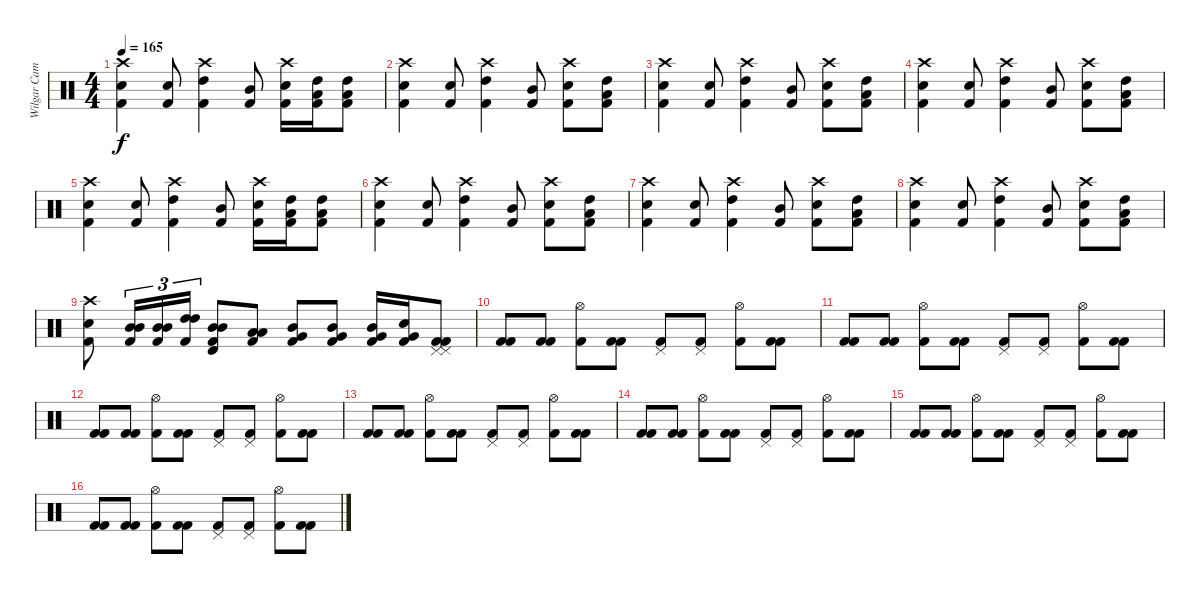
\track ("Wilgar Campbell" "Wilgar Cam") {instrument percussion}
\staff {score}
\articulation defaults
\ts (4 4)
\tempo 165
\clef neutral
\ks c
("Crash high (hit)" "Electric Snare (hit)" "Kick (hit) 2").4{dy f} ("Snare (hit) 2" "Kick (hit) 2").8 ("Crash high (hit)" "High Tom (hit)" "Kick (hit) 2").4 ("Mid Tom (hit)" "Kick (hit) 2").8 ("Crash high (hit)" "Electric Snare (hit)" "Kick (hit) 2").16 ("High Tom (hit)" "Kick (hit) 2" "Low Tom (hit)").16 ("High Tom (hit)" "Kick (hit) 2" "Low Tom (hit)").8 |
("Crash high (hit)" "Electric Snare (hit)" "Kick (hit) 2").4 ("Snare (hit) 2" "Kick (hit) 2").8 ("Crash high (hit)" "High Tom (hit)" "Kick (hit) 2").4 ("Mid Tom (hit)" "Kick (hit) 2").8 ("Crash high (hit)" "Electric Snare (hit)" "Kick (hit) 2").8 ("High Tom (hit)" "Kick (hit) 2" "Low Tom (hit)").8 |
("Crash high (hit)" "Electric Snare (hit)" "Kick (hit) 2").4 ("Snare (hit) 2" "Kick (hit) 2").8 ("Crash high (hit)" "High Tom (hit)" "Kick (hit) 2").4 ("Mid Tom (hit)" "Kick (hit) 2").8 ("Crash high (hit)" "Electric Snare (hit)" "Kick (hit) 2").8 ("High Tom (hit)" "Kick (hit) 2" "Low Tom (hit)").8 |
("Crash high (hit)" "Electric Snare (hit)" "Kick (hit) 2").4 ("Snare (hit) 2" "Kick (hit) 2").8 ("Crash high (hit)" "High Tom (hit)" "Kick (hit) 2").4 ("Mid Tom (hit)" "Kick (hit) 2").8 ("Crash high (hit)" "Electric Snare (hit)" "Kick (hit) 2").8 ("High Tom (hit)" "Kick (hit) 2" "Low Tom (hit)").8 |
("Crash high (hit)" "Electric Snare (hit)" "Kick (hit) 2").4 ("Snare (hit) 2" "Kick (hit) 2").8 ("Crash high (hit)" "High Tom (hit)" "Kick (hit) 2").4 ("Mid Tom (hit)" "Kick (hit) 2").8 ("Crash high (hit)" "Electric Snare (hit)" "Kick (hit) 2").16 ("High Tom (hit)" "Kick (hit) 2" "Low Tom (hit)").16 ("High Tom (hit)" "Kick (hit) 2" "Low Tom (hit)").8 |
("Crash high (hit)" "Electric Snare (hit)" "Kick (hit) 2").4 ("Snare (hit) 2" "Kick (hit) 2").8 ("Crash high (hit)" "High Tom (hit)" "Kick (hit) 2").4 ("Mid Tom (hit)" "Kick (hit) 2").8 ("Crash high (hit)" "Electric Snare (hit)" "Kick (hit) 2").8 ("High Tom (hit)" "Kick (hit) 2" "Low Tom (hit)").8 |
("Crash high (hit)" "Electric Snare (hit)" "Kick (hit) 2").4 ("Snare (hit) 2" "Kick (hit) 2").8 ("Crash high (hit)" "High Tom (hit)" "Kick (hit) 2").4 ("Mid Tom (hit)" "Kick (hit) 2").8 ("Crash high (hit)" "Electric Snare (hit)" "Kick (hit) 2").8 ("High Tom (hit)" "Kick (hit) 2" "Low Tom (hit)").8 |
("Crash high (hit)" "Electric Snare (hit)" "Kick (hit) 2").4 ("Snare (hit) 2" "Kick (hit) 2").8 ("Crash high (hit)" "High Tom (hit)" "Kick (hit) 2").4 ("Mid Tom (hit)" "Kick (hit) 2").8 ("Crash high (hit)" "Electric Snare (hit)" "Kick (hit) 2").8 ("High Tom (hit)" "Kick (hit) 2" "Low Tom (hit)").8 |
("Crash high (hit)" "Snare (hit) 2" "Kick (hit) 2").8 ("Mid Tom (hit)" "Mid Tom (hit)" "Kick (hit) 2").16{tu (3 2)} ("Mid Tom (hit)" "Mid Tom (hit)" "Kick (hit) 2").16{tu (3 2)} ("High Tom (hit)" "High Tom (hit)" "Kick (hit) 2").16{tu (3 2)} ("Timbale high (hit)" "Mid Tom (hit)" "Mid Tom (hit)" "Kick (hit) 2").8 ("Low Tom (hit)" "Low Tom (hit)" "Kick (hit) 2").8 ("Mid Tom (hit)" "Very Low Tom (hit)" "Kick (hit) 2").8 ("Mid Tom (hit)" "Very Low Tom (hit)" "Kick (hit) 2").8 ("Mid Tom (hit)" "Very Low Tom (hit)" "Kick (hit) 2").16 ("Electric Snare (hit)" "Very Low Tom (hit)" "Kick (hit) 2").16 ("Pedal Hi-Hat (hit)" "Pedal Hi-Hat (hit)" "Kick (hit) 2" "Kick (hit) 2").8 |
("Kick (hit) 2" "Kick (hit) 2").8 ("Kick (hit) 2" "Kick (hit) 2").8 ("Hi-Hat (open)" "Kick (hit) 2").8 ("Kick (hit) 2" "Kick (hit) 2").8 ("Pedal Hi-Hat (hit)" "Kick (hit) 2").8 ("Pedal Hi-Hat (hit)" "Kick (hit) 2").8 ("Hi-Hat (open)" "Kick (hit) 2").8 ("Kick (hit) 2" "Kick (hit) 2").8 |
("Kick (hit) 2" "Kick (hit) 2").8 ("Kick (hit) 2" "Kick (hit) 2").8 ("Hi-Hat (open)" "Kick (hit) 2").8 ("Kick (hit) 2" "Kick (hit) 2").8 ("Pedal Hi-Hat (hit)" "Kick (hit) 2").8 ("Pedal Hi-Hat (hit)" "Kick (hit) 2").8 ("Hi-Hat (open)" "Kick (hit) 2").8 ("Kick (hit) 2" "Kick (hit) 2").8 |
("Kick (hit) 2" "Kick (hit) 2").8 ("Kick (hit) 2" "Kick (hit) 2").8 ("Hi-Hat (open)" "Kick (hit) 2").8 ("Kick (hit) 2" "Kick (hit) 2").8 ("Pedal Hi-Hat (hit)" "Kick (hit) 2").8 ("Pedal Hi-Hat (hit)" "Kick (hit) 2").8 ("Hi-Hat (open)" "Kick (hit) 2").8 ("Kick (hit) 2" "Kick (hit) 2").8 |
("Kick (hit) 2" "Kick (hit) 2").8 ("Kick (hit) 2" "Kick (hit) 2").8 ("Hi-Hat (open)" "Kick (hit) 2").8 ("Kick (hit) 2" "Kick (hit) 2").8 ("Pedal Hi-Hat (hit)" "Kick (hit) 2").8 ("Pedal Hi-Hat (hit)" "Kick (hit) 2").8 ("Hi-Hat (open)" "Kick (hit) 2").8 ("Kick (hit) 2" "Kick (hit) 2").8 |
("Kick (hit) 2" "Kick (hit) 2").8 ("Kick (hit) 2" "Kick (hit) 2").8 ("Hi-Hat (open)" "Kick (hit) 2").8 ("Kick (hit) 2" "Kick (hit) 2").8 ("Pedal Hi-Hat (hit)" "Kick (hit) 2").8 ("Pedal Hi-Hat (hit)" "Kick (hit) 2").8 ("Hi-Hat (open)" "Kick (hit) 2").8 ("Kick (hit) 2" "Kick (hit) 2").8 |
("Kick (hit) 2" "Kick (hit) 2").8 ("Kick (hit) 2" "Kick (hit) 2").8 ("Hi-Hat (open)" "Kick (hit) 2").8 ("Kick (hit) 2" "Kick (hit) 2").8 ("Pedal Hi-Hat (hit)" "Kick (hit) 2").8 ("Pedal Hi-Hat (hit)" "Kick (hit) 2").8 ("Hi-Hat (open)" "Kick (hit) 2").8 ("Kick (hit) 2" "Kick (hit) 2").8 |
("Kick (hit) 2" "Kick (hit) 2").8 ("Kick (hit) 2" "Kick (hit) 2").8 ("Hi-Hat (open)" "Kick (hit) 2").8 ("Kick (hit) 2" "Kick (hit) 2").8 ("Pedal Hi-Hat (hit)" "Kick (hit) 2").8 ("Pedal Hi-Hat (hit)" "Kick (hit) 2").8 ("Hi-Hat (open)" "Kick (hit) 2").8 ("Kick (hit) 2" "Kick (hit) 2").8
